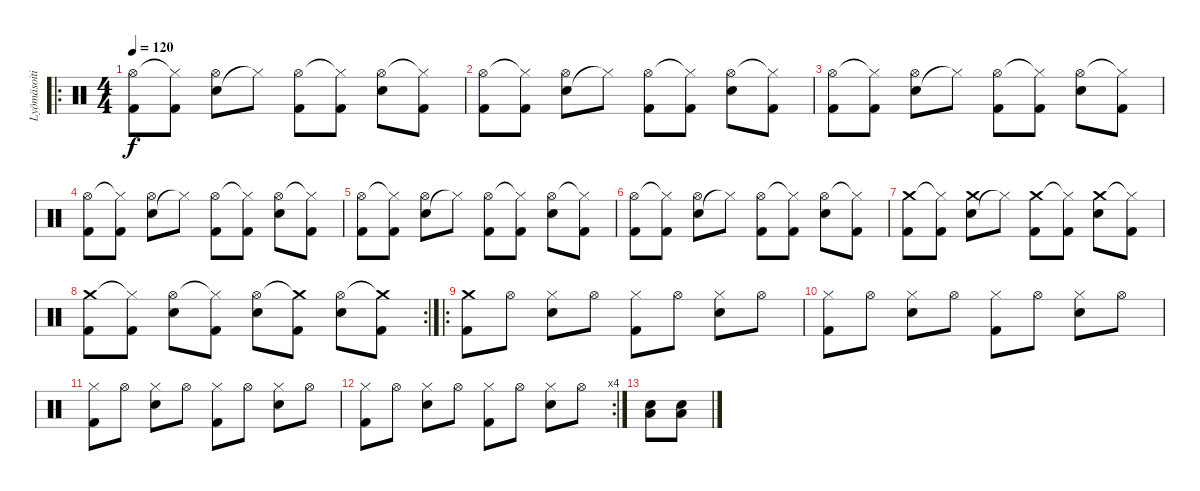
\track ("Lyömäsoitin" "Lyömäsoiti") {instrument percussion}
\staff {score}
\articulation defaults
\ro
\ts (4 4)
\tempo 120
\clef neutral
\ks c
("Kick (hit) 2" "Hi-Hat (open)").8{dy f} ("Kick (hit) 2" "Hi-Hat (closed)"{t}).8 ("Electric Snare (hit)" "Hi-Hat (open)").8 "Hi-Hat (closed)"{t}.8 ("Kick (hit) 2" "Hi-Hat (open)").8 ("Kick (hit) 2" "Hi-Hat (closed)"{t}).8 ("Electric Snare (hit)" "Hi-Hat (open)").8 ("Kick (hit) 2" "Hi-Hat (closed)"{t}).8 |
("Kick (hit) 2" "Hi-Hat (open)").8 ("Kick (hit) 2" "Hi-Hat (closed)"{t}).8 ("Electric Snare (hit)" "Hi-Hat (open)").8 "Hi-Hat (closed)"{t}.8 ("Kick (hit) 2" "Hi-Hat (open)").8 ("Kick (hit) 2" "Hi-Hat (closed)"{t}).8 ("Electric Snare (hit)" "Hi-Hat (open)").8 ("Kick (hit) 2" "Hi-Hat (closed)"{t}).8 |
("Kick (hit) 2" "Hi-Hat (open)").8 ("Kick (hit) 2" "Hi-Hat (closed)"{t}).8 ("Electric Snare (hit)" "Hi-Hat (open)").8 "Hi-Hat (closed)"{t}.8 ("Kick (hit) 2" "Hi-Hat (open)").8 ("Kick (hit) 2" "Hi-Hat (closed)"{t}).8 ("Electric Snare (hit)" "Hi-Hat (open)").8 ("Kick (hit) 2" "Hi-Hat (closed)"{t}).8 |
("Kick (hit) 2" "Hi-Hat (open)").8 ("Kick (hit) 2" "Hi-Hat (closed)"{t}).8 ("Electric Snare (hit)" "Hi-Hat (open)").8 "Hi-Hat (closed)"{t}.8 ("Kick (hit) 2" "Hi-Hat (open)").8 ("Kick (hit) 2" "Hi-Hat (closed)"{t}).8 ("Electric Snare (hit)" "Hi-Hat (open)").8 ("Kick (hit) 2" "Hi-Hat (closed)"{t}).8 |
("Kick (hit) 2" "Hi-Hat (open)").8 ("Kick (hit) 2" "Hi-Hat (closed)"{t}).8 ("Electric Snare (hit)" "Hi-Hat (open)").8 "Hi-Hat (closed)"{t}.8 ("Kick (hit) 2" "Hi-Hat (open)").8 ("Kick (hit) 2" "Hi-Hat (closed)"{t}).8 ("Electric Snare (hit)" "Hi-Hat (open)").8 ("Kick (hit) 2" "Hi-Hat (closed)"{t}).8 |
("Kick (hit) 2" "Hi-Hat (open)").8 ("Kick (hit) 2" "Hi-Hat (closed)"{t}).8 ("Electric Snare (hit)" "Hi-Hat (open)").8 "Hi-Hat (closed)"{t}.8 ("Kick (hit) 2" "Hi-Hat (open)").8 ("Kick (hit) 2" "Hi-Hat (closed)"{t}).8 ("Electric Snare (hit)" "Hi-Hat (open)").8 ("Kick (hit) 2" "Hi-Hat (closed)"{t}).8 |
("Kick (hit) 2" "Crash medium (hit)").8 ("Kick (hit) 2" "Hi-Hat (closed)"{t}).8 ("Electric Snare (hit)" "Crash medium (hit)").8 "Hi-Hat (closed)"{t}.8 ("Kick (hit) 2" "Crash medium (hit)").8 ("Kick (hit) 2" "Hi-Hat (closed)"{t}).8 ("Electric Snare (hit)" "Crash medium (hit)").8 ("Kick (hit) 2" "Hi-Hat (closed)"{t}).8 |
\rc 2
("Kick (hit) 2" "Crash medium (hit)").8 ("Kick (hit) 2" "Hi-Hat (closed)"{t}).8 ("Electric Snare (hit)" "Hi-Hat (open)").8 ("Kick (hit) 2" "Hi-Hat (closed)"{t}).8 ("Electric Snare (hit)" "Hi-Hat (open)").8 ("Kick (hit) 2" "Crash medium (hit)"{t}).8 ("Electric Snare (hit)" "Hi-Hat (open)").8 ("Kick (hit) 2" "Crash medium (hit)"{t}).8 |
\ro
("Kick (hit) 2" "Crash medium (hit)").8 "Hi-Hat (open)".8 ("Electric Snare (hit)" "Hi-Hat (closed)").8 "Hi-Hat (open)".8 ("Kick (hit) 2" "Hi-Hat (closed)").8 "Hi-Hat (open)".8 ("Electric Snare (hit)" "Hi-Hat (closed)").8 "Hi-Hat (open)".8 |
("Kick (hit) 2" "Hi-Hat (closed)").8 "Hi-Hat (open)".8 ("Electric Snare (hit)" "Hi-Hat (closed)").8 "Hi-Hat (open)".8 ("Kick (hit) 2" "Hi-Hat (closed)").8 "Hi-Hat (open)".8 ("Electric Snare (hit)" "Hi-Hat (closed)").8 "Hi-Hat (open)".8 |
("Kick (hit) 2" "Hi-Hat (closed)").8 "Hi-Hat (open)".8 ("Electric Snare (hit)" "Hi-Hat (closed)").8 "Hi-Hat (open)".8 ("Kick (hit) 2" "Hi-Hat (closed)").8 "Hi-Hat (open)".8 ("Electric Snare (hit)" "Hi-Hat (closed)").8 "Hi-Hat (open)".8 |
\rc 4
("Kick (hit) 2" "Hi-Hat (closed)").8 "Hi-Hat (open)".8 ("Electric Snare (hit)" "Hi-Hat (closed)").8 "Hi-Hat (open)".8 ("Kick (hit) 2" "Hi-Hat (closed)").8 "Hi-Hat (open)".8 ("Electric Snare (hit)" "Hi-Hat (closed)").8 "Hi-Hat (open)".8 |
("Low Tom (hit)" "Electric Snare (hit)").8 ("Low Tom (hit)" "Electric Snare (hit)").8
